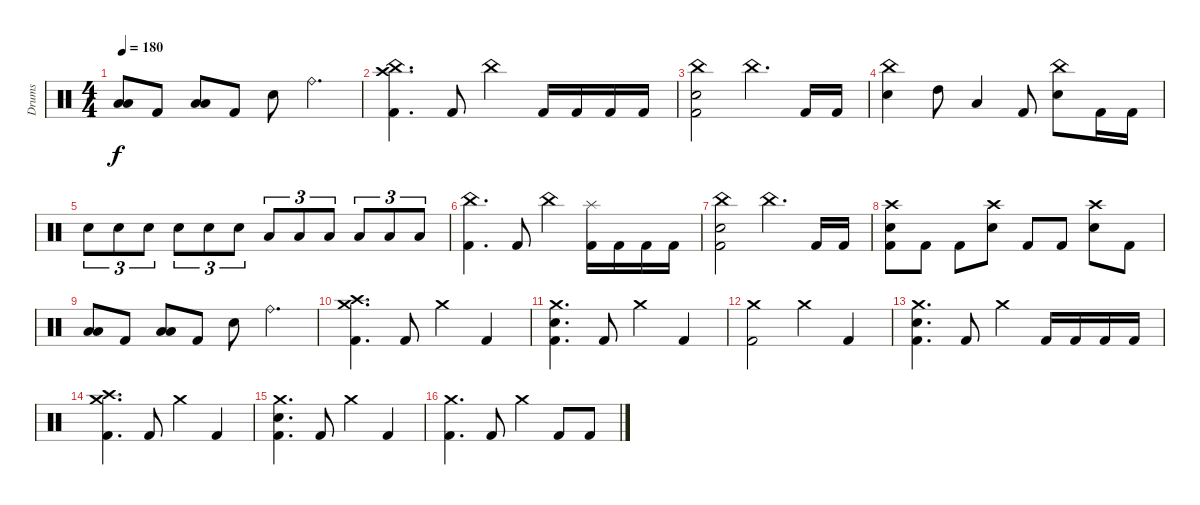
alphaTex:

\track ("Drums" "Drums") {instrument percussion}
\staff {score}
\articulation defaults
\ts (4 4)
\tempo 180
\clef neutral
\ks c
("Low Tom (hit)" "Low Floor Tom (hit)").8{dy f} "Kick (hit) 2".8 ("Low Tom (hit)" "Low Floor Tom (hit)").8 "Kick (hit) 2".8 "Snare (hit) 2".8 "Ride (bell)".4{d} |
("China (hit)" "Crash high (hit)" "Kick (hit) 2").4{d} "Kick (hit) 2".8 "China (hit)".4 "Kick (hit) 2".16 "Kick (hit) 2".16 "Kick (hit) 2".16 "Kick (hit) 2".16 |
("China (hit)" "Snare (hit) 2" "Kick (hit) 2").2 "China (hit)".4{d} "Kick (hit) 2".16 "Kick (hit) 2".16 |
("China (hit)" "Snare (hit) 2").4 "High Tom (hit)".8 "Low Tom (hit)".4 "Kick (hit) 2".8 ("China (hit)" "Snare (hit) 2").8 "Kick (hit) 2".16 "Kick (hit) 2".16 |
"Snare (hit) 2".8{tu (3 2)} "Snare (hit) 2".8{tu (3 2)} "Snare (hit) 2".8{tu (3 2)} "Snare (hit) 2".8{tu (3 2)} "Snare (hit) 2".8{tu (3 2)} "Snare (hit) 2".8{tu (3 2)} "Low Tom (hit)".8{tu (3 2)} "Low Tom (hit)".8{tu (3 2)} "Low Floor Tom (hit)".8{tu (3 2)} "Low Floor Tom (hit)".8{tu (3 2)} "Low Floor Tom (hit)".8{tu (3 2)} "Low Floor Tom (hit)".8{tu (3 2)} |
("China (hit)" "Kick (hit) 2").4{d} "Kick (hit) 2".8 "China (hit)".4 ("Splash (hit)" "Kick (hit) 2").16 "Kick (hit) 2".16 "Kick (hit) 2".16 "Kick (hit) 2".16 |
("China (hit)" "Snare (hit) 2" "Kick (hit) 2").2 "China (hit)".4{d} "Kick (hit) 2".16 "Kick (hit) 2".16 |
("Crash high (hit)" "Snare (hit) 2" "Kick (hit) 2").8 "Kick (hit) 2".8 "Kick (hit) 2".8 ("Crash high (hit)" "Snare (hit) 2").8 "Kick (hit) 2".8 "Kick (hit) 2".8 ("Crash high (hit)" "Snare (hit) 2").8 "Kick (hit) 2".8 |
("Low Tom (hit)" "Low Floor Tom (hit)").8 "Kick (hit) 2".8 ("Low Tom (hit)" "Low Floor Tom (hit)").8 "Kick (hit) 2".8 "Snare (hit) 2".8 "Ride (bell)".4{d} |
("Crash high (hit)" "Crash medium (hit)" "Kick (hit) 2").4{d} "Kick (hit) 2".8 "Crash medium (hit)".4 "Kick (hit) 2".4 |
("Crash medium (hit)" "Snare (hit) 2" "Kick (hit) 2").4{d} "Kick (hit) 2".8 "Crash medium (hit)".4 "Kick (hit) 2".4 |
("Crash medium (hit)" "Kick (hit) 2").2 "Crash medium (hit)".4 "Kick (hit) 2".4 |
("Crash medium (hit)" "Snare (hit) 2" "Kick (hit) 2").4{d} "Kick (hit) 2".8 "Crash medium (hit)".4 "Kick (hit) 2".16 "Kick (hit) 2".16 "Kick (hit) 2".16 "Kick (hit) 2".16 |
("Crash medium (hit)" "Crash high (hit)" "Kick (hit) 2").4{d} "Kick (hit) 2".8 "Crash medium (hit)".4 "Kick (hit) 2".4 |
("Crash medium (hit)" "Snare (hit) 2" "Kick (hit) 2").4{d} "Kick (hit) 2".8 "Crash medium (hit)".4 "Kick (hit) 2".4 |
("Crash medium (hit)" "Kick (hit) 2").4{d} "Kick (hit) 2".8 "Crash medium (hit)".4 "Kick (hit) 2".8 "Kick (hit) 2".8
